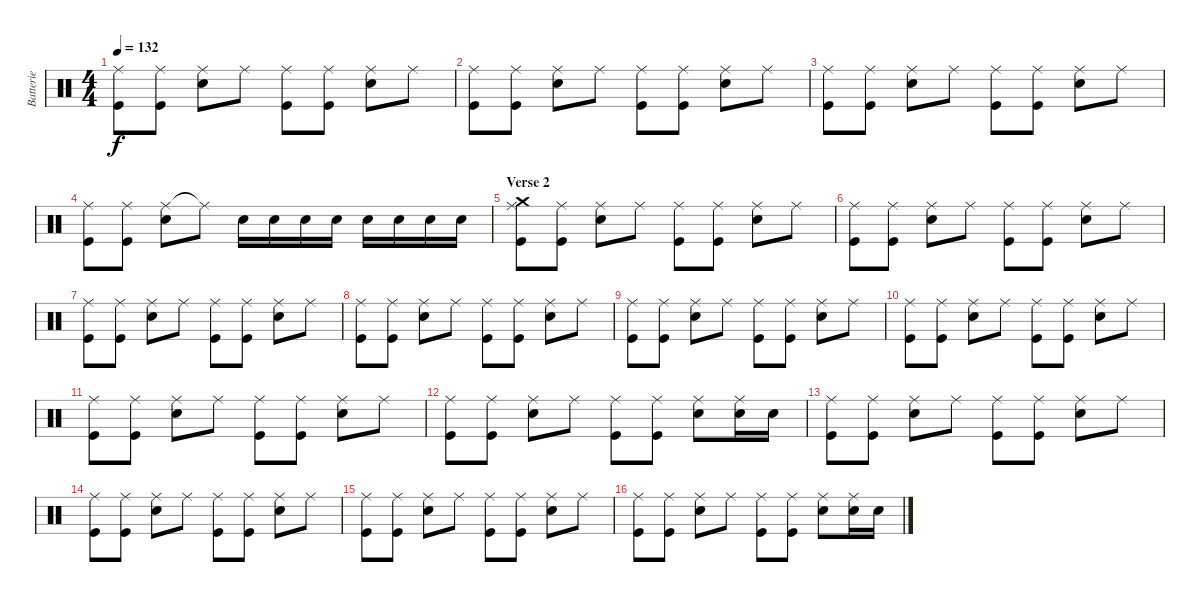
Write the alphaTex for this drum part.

\track ("Batterie" "Batterie") {instrument percussion}
\staff {score}
\articulation defaults
\ts (4 4)
\tempo 132
\clef neutral
\ks c
("Ride (middle)" "Kick (hit)").8{dy f} ("Ride (middle)" "Kick (hit)").8 ("Ride (middle)" "Snare (hit) 2").8 "Ride (middle)".8 ("Ride (middle)" "Kick (hit)").8 ("Ride (middle)" "Kick (hit)").8 ("Ride (middle)" "Snare (hit) 2").8 "Ride (middle)".8 |
("Ride (middle)" "Kick (hit)").8 ("Ride (middle)" "Kick (hit)").8 ("Ride (middle)" "Snare (hit) 2").8 "Ride (middle)".8 ("Ride (middle)" "Kick (hit)").8 ("Ride (middle)" "Kick (hit)").8 ("Ride (middle)" "Snare (hit) 2").8 "Ride (middle)".8 |
("Ride (middle)" "Kick (hit)").8 ("Ride (middle)" "Kick (hit)").8 ("Ride (middle)" "Snare (hit) 2").8 "Ride (middle)".8 ("Ride (middle)" "Kick (hit)").8 ("Ride (middle)" "Kick (hit)").8 ("Ride (middle)" "Snare (hit) 2").8 "Ride (middle)".8 |
("Ride (middle)" "Kick (hit)").8 ("Ride (middle)" "Kick (hit)").8 ("Ride (middle)" "Snare (hit) 2").8 "Ride (middle)"{t}.8 "Snare (hit) 2".16 "Snare (hit) 2".16 "Snare (hit) 2".16 "Snare (hit) 2".16 "Snare (hit) 2".16 "Snare (hit) 2".16 "Snare (hit) 2".16 "Snare (hit) 2".16 |
\section ("" "Verse 2")
("Ride (middle)" "Crash medium (hit)" "Kick (hit)").8 ("Ride (middle)" "Kick (hit)").8 ("Ride (middle)" "Snare (hit) 2").8 "Ride (middle)".8 ("Ride (middle)" "Kick (hit)").8 ("Ride (middle)" "Kick (hit)").8 ("Ride (middle)" "Snare (hit) 2").8 "Ride (middle)".8 |
("Ride (middle)" "Kick (hit)").8 ("Ride (middle)" "Kick (hit)").8 ("Ride (middle)" "Snare (hit) 2").8 "Ride (middle)".8 ("Ride (middle)" "Kick (hit)").8 ("Ride (middle)" "Kick (hit)").8 ("Ride (middle)" "Snare (hit) 2").8 "Ride (middle)".8 |
("Ride (middle)" "Kick (hit)").8 ("Ride (middle)" "Kick (hit)").8 ("Ride (middle)" "Snare (hit) 2").8 "Ride (middle)".8 ("Ride (middle)" "Kick (hit)").8 ("Ride (middle)" "Kick (hit)").8 ("Ride (middle)" "Snare (hit) 2").8 "Ride (middle)".8 |
("Ride (middle)" "Kick (hit)").8 ("Ride (middle)" "Kick (hit)").8 ("Ride (middle)" "Snare (hit) 2").8 "Ride (middle)".8 ("Ride (middle)" "Kick (hit)").8 ("Ride (middle)" "Kick (hit)").8 ("Ride (middle)" "Snare (hit) 2").8 "Ride (middle)".8 |
("Ride (middle)" "Kick (hit)").8 ("Ride (middle)" "Kick (hit)").8 ("Ride (middle)" "Snare (hit) 2").8 "Ride (middle)".8 ("Ride (middle)" "Kick (hit)").8 ("Ride (middle)" "Kick (hit)").8 ("Ride (middle)" "Snare (hit) 2").8 "Ride (middle)".8 |
("Ride (middle)" "Kick (hit)").8 ("Ride (middle)" "Kick (hit)").8 ("Ride (middle)" "Snare (hit) 2").8 "Ride (middle)".8 ("Ride (middle)" "Kick (hit)").8 ("Ride (middle)" "Kick (hit)").8 ("Ride (middle)" "Snare (hit) 2").8 "Ride (middle)".8 |
("Ride (middle)" "Kick (hit)").8 ("Ride (middle)" "Kick (hit)").8 ("Ride (middle)" "Snare (hit) 2").8 "Ride (middle)".8 ("Ride (middle)" "Kick (hit)").8 ("Ride (middle)" "Kick (hit)").8 ("Ride (middle)" "Snare (hit) 2").8 "Ride (middle)".8 |
("Ride (middle)" "Kick (hit)").8 ("Ride (middle)" "Kick (hit)").8 ("Ride (middle)" "Snare (hit) 2").8 "Ride (middle)".8 ("Ride (middle)" "Kick (hit)").8 ("Ride (middle)" "Kick (hit)").8 ("Ride (middle)" "Snare (hit) 2").8 ("Ride (middle)" "Snare (hit) 2").16 "Snare (hit) 2".16 |
("Ride (middle)" "Kick (hit)").8 ("Ride (middle)" "Kick (hit)").8 ("Ride (middle)" "Snare (hit) 2").8 "Ride (middle)".8 ("Ride (middle)" "Kick (hit)").8 ("Ride (middle)" "Kick (hit)").8 ("Ride (middle)" "Snare (hit) 2").8 "Ride (middle)".8 |
("Ride (middle)" "Kick (hit)").8 ("Ride (middle)" "Kick (hit)").8 ("Ride (middle)" "Snare (hit) 2").8 "Ride (middle)".8 ("Ride (middle)" "Kick (hit)").8 ("Ride (middle)" "Kick (hit)").8 ("Ride (middle)" "Snare (hit) 2").8 "Ride (middle)".8 |
("Ride (middle)" "Kick (hit)").8 ("Ride (middle)" "Kick (hit)").8 ("Ride (middle)" "Snare (hit) 2").8 "Ride (middle)".8 ("Ride (middle)" "Kick (hit)").8 ("Ride (middle)" "Kick (hit)").8 ("Ride (middle)" "Snare (hit) 2").8 "Ride (middle)".8 |
("Ride (middle)" "Kick (hit)").8 ("Ride (middle)" "Kick (hit)").8 ("Ride (middle)" "Snare (hit) 2").8 "Ride (middle)".8 ("Ride (middle)" "Kick (hit)").8 ("Ride (middle)" "Kick (hit)").8 ("Ride (middle)" "Snare (hit) 2").8 ("Ride (middle)" "Snare (hit) 2").16 "Snare (hit) 2".16
